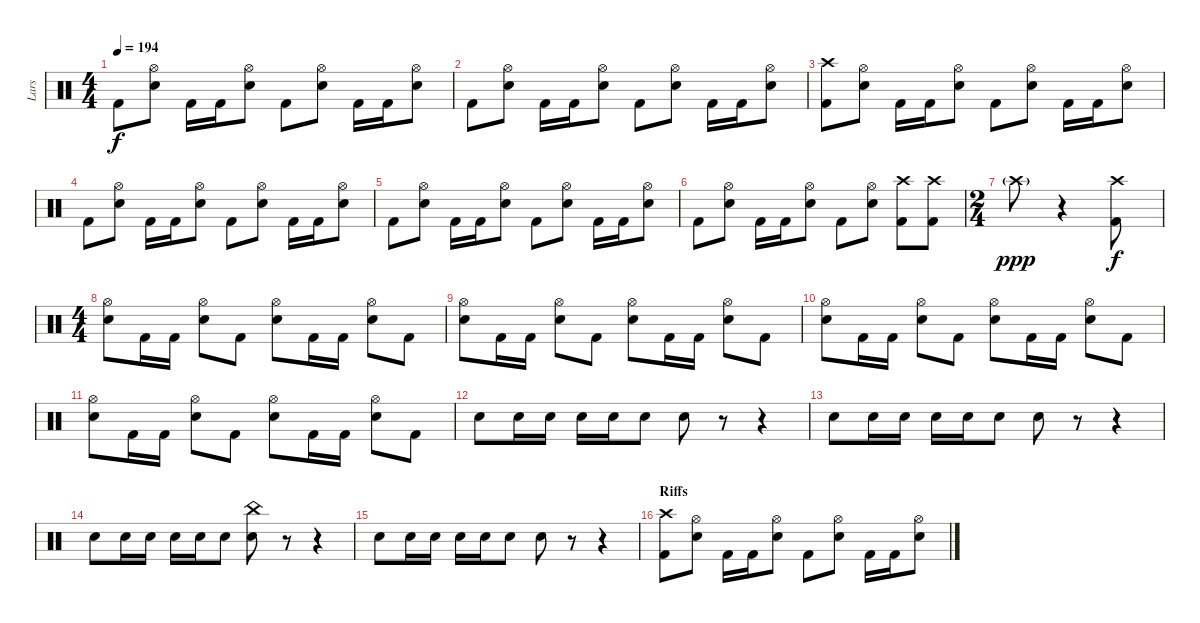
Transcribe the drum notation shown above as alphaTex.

\track ("Lars" "Lars") {instrument percussion}
\staff {score}
\articulation defaults
\ts (4 4)
\tempo 194
\clef neutral
\ks c "Kick (hit) 2".8{dy f}
("Electric Snare (hit)" "Hi-Hat (open)").8 "Kick (hit) 2".16 "Kick (hit) 2".16 ("Electric Snare (hit)" "Hi-Hat (open)").8 "Kick (hit) 2".8 ("Electric Snare (hit)" "Hi-Hat (open)").8 "Kick (hit) 2".16 "Kick (hit) 2".16 ("Electric Snare (hit)" "Hi-Hat (open)").8 |
"Kick (hit) 2".8 ("Electric Snare (hit)" "Hi-Hat (open)").8 "Kick (hit) 2".16 "Kick (hit) 2".16 ("Electric Snare (hit)" "Hi-Hat (open)").8 "Kick (hit) 2".8 ("Electric Snare (hit)" "Hi-Hat (open)").8 "Kick (hit) 2".16 "Kick (hit) 2".16 ("Electric Snare (hit)" "Hi-Hat (open)").8 |
("Kick (hit) 2" "Crash high (hit)").8 ("Electric Snare (hit)" "Hi-Hat (open)").8 "Kick (hit) 2".16 "Kick (hit) 2".16 ("Electric Snare (hit)" "Hi-Hat (open)").8 "Kick (hit) 2".8 ("Electric Snare (hit)" "Hi-Hat (open)").8 "Kick (hit) 2".16 "Kick (hit) 2".16 ("Electric Snare (hit)" "Hi-Hat (open)").8 |
"Kick (hit) 2".8 ("Electric Snare (hit)" "Hi-Hat (open)").8 "Kick (hit) 2".16 "Kick (hit) 2".16 ("Electric Snare (hit)" "Hi-Hat (open)").8 "Kick (hit) 2".8 ("Electric Snare (hit)" "Hi-Hat (open)").8 "Kick (hit) 2".16 "Kick (hit) 2".16 ("Electric Snare (hit)" "Hi-Hat (open)").8 |
"Kick (hit) 2".8 ("Electric Snare (hit)" "Hi-Hat (open)").8 "Kick (hit) 2".16 "Kick (hit) 2".16 ("Electric Snare (hit)" "Hi-Hat (open)").8 "Kick (hit) 2".8 ("Electric Snare (hit)" "Hi-Hat (open)").8 "Kick (hit) 2".16 "Kick (hit) 2".16 ("Electric Snare (hit)" "Hi-Hat (open)").8 |
"Kick (hit) 2".8 ("Electric Snare (hit)" "Hi-Hat (open)").8 "Kick (hit) 2".16 "Kick (hit) 2".16 ("Electric Snare (hit)" "Hi-Hat (open)").8 "Kick (hit) 2".8 ("Electric Snare (hit)" "Hi-Hat (open)").8 ("Kick (hit) 2" "Crash high (hit)").8 ("Kick (hit) 2" "Crash high (hit)").8 |
\ts (2 4)
"Crash high (hit)"{g}.8{dy ppp} r.4 ("Kick (hit) 2" "Crash high (hit)").8{dy f} |
\ts (4 4)
("Electric Snare (hit)" "Hi-Hat (open)").8 "Kick (hit) 2".16 "Kick (hit) 2".16 ("Electric Snare (hit)" "Hi-Hat (open)").8 "Kick (hit) 2".8 ("Electric Snare (hit)" "Hi-Hat (open)").8 "Kick (hit) 2".16 "Kick (hit) 2".16 ("Electric Snare (hit)" "Hi-Hat (open)").8 "Kick (hit) 2".8 |
("Electric Snare (hit)" "Hi-Hat (open)").8 "Kick (hit) 2".16 "Kick (hit) 2".16 ("Electric Snare (hit)" "Hi-Hat (open)").8 "Kick (hit) 2".8 ("Electric Snare (hit)" "Hi-Hat (open)").8 "Kick (hit) 2".16 "Kick (hit) 2".16 ("Electric Snare (hit)" "Hi-Hat (open)").8 "Kick (hit) 2".8 |
("Electric Snare (hit)" "Hi-Hat (open)").8 "Kick (hit) 2".16 "Kick (hit) 2".16 ("Electric Snare (hit)" "Hi-Hat (open)").8 "Kick (hit) 2".8 ("Electric Snare (hit)" "Hi-Hat (open)").8 "Kick (hit) 2".16 "Kick (hit) 2".16 ("Electric Snare (hit)" "Hi-Hat (open)").8 "Kick (hit) 2".8 |
("Electric Snare (hit)" "Hi-Hat (open)").8 "Kick (hit) 2".16 "Kick (hit) 2".16 ("Electric Snare (hit)" "Hi-Hat (open)").8 "Kick (hit) 2".8 ("Electric Snare (hit)" "Hi-Hat (open)").8 "Kick (hit) 2".16 "Kick (hit) 2".16 ("Electric Snare (hit)" "Hi-Hat (open)").8 "Kick (hit) 2".8 |
"Electric Snare (hit)".8 "Electric Snare (hit)".16 "Electric Snare (hit)".16 "Electric Snare (hit)".16 "Electric Snare (hit)".16 "Electric Snare (hit)".8 "Electric Snare (hit)".8 r.8 r.4 |
"Electric Snare (hit)".8 "Electric Snare (hit)".16 "Electric Snare (hit)".16 "Electric Snare (hit)".16 "Electric Snare (hit)".16 "Electric Snare (hit)".8 "Electric Snare (hit)".8 r.8 r.4 |
"Electric Snare (hit)".8 "Electric Snare (hit)".16 "Electric Snare (hit)".16 "Electric Snare (hit)".16 "Electric Snare (hit)".16 "Electric Snare (hit)".8 ("Electric Snare (hit)" "China (hit)").8 r.8 r.4 |
"Electric Snare (hit)".8 "Electric Snare (hit)".16 "Electric Snare (hit)".16 "Electric Snare (hit)".16 "Electric Snare (hit)".16 "Electric Snare (hit)".8 "Electric Snare (hit)".8 r.8 r.4 |
\section ("" "Riffs")
("Kick (hit) 2" "Crash high (hit)").8 ("Electric Snare (hit)" "Hi-Hat (open)").8 "Kick (hit) 2".16 "Kick (hit) 2".16 ("Electric Snare (hit)" "Hi-Hat (open)").8 "Kick (hit) 2".8 ("Electric Snare (hit)" "Hi-Hat (open)").8 "Kick (hit) 2".16 "Kick (hit) 2".16 ("Electric Snare (hit)" "Hi-Hat (open)").8
